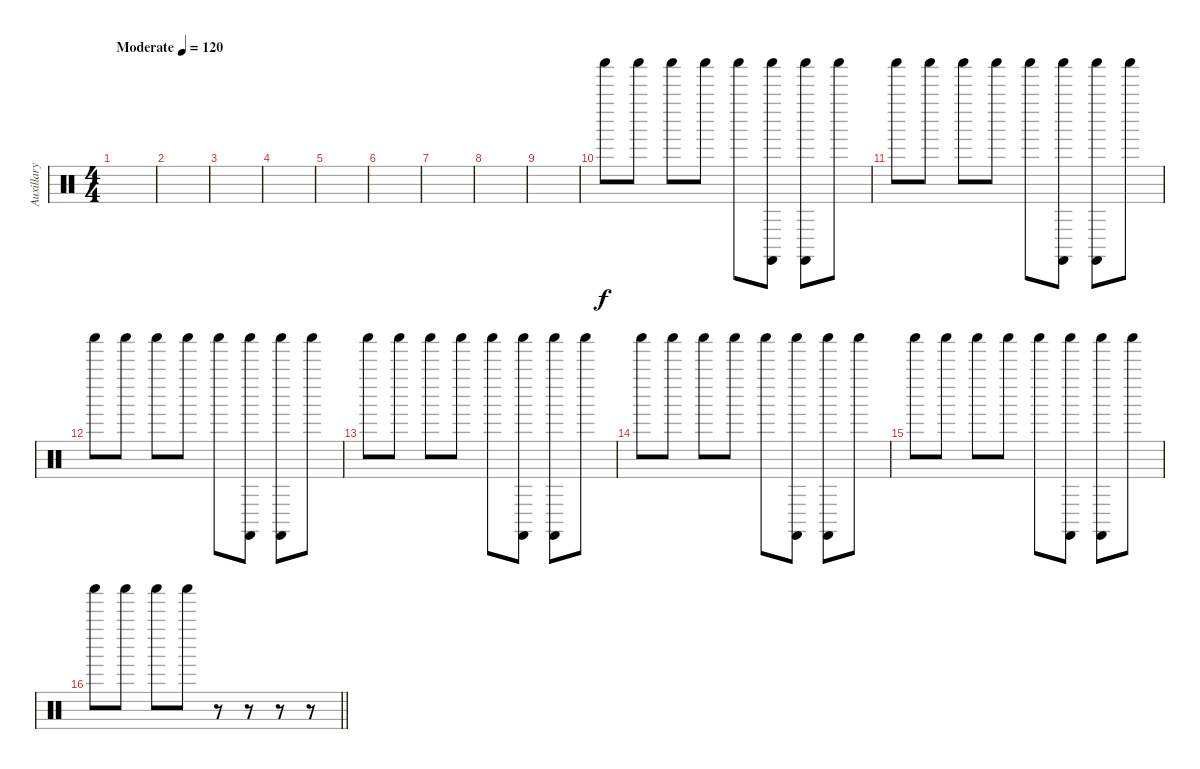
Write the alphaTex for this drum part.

\track ("Auxillary" "Auxillary") {instrument percussion}
\staff {score}
\articulation defaults
\ts (4 4)
\tempo (120 "Moderate")
\clef neutral
\ks c
|
|
|
|
|
|
|
|
|
"Shaker (hit)".8 "Shaker (hit)".8 "Shaker (hit)".8 "Shaker (hit)".8 "Shaker (hit)".8 ("Shaker (hit)" "Castanets (hit)").8 ("Shaker (hit)" "Castanets (hit)").8 "Shaker (hit)".8 |
"Shaker (hit)".8 "Shaker (hit)".8 "Shaker (hit)".8 "Shaker (hit)".8 "Shaker (hit)".8 ("Shaker (hit)" "Castanets (hit)").8 ("Shaker (hit)" "Castanets (hit)").8 "Shaker (hit)".8 |
"Shaker (hit)".8 "Shaker (hit)".8 "Shaker (hit)".8 "Shaker (hit)".8 "Shaker (hit)".8 ("Shaker (hit)" "Castanets (hit)").8 ("Shaker (hit)" "Castanets (hit)").8 "Shaker (hit)".8 |
"Shaker (hit)".8 "Shaker (hit)".8 "Shaker (hit)".8 "Shaker (hit)".8 "Shaker (hit)".8 ("Shaker (hit)" "Castanets (hit)").8 ("Shaker (hit)" "Castanets (hit)").8 "Shaker (hit)".8 |
"Shaker (hit)".8 "Shaker (hit)".8 "Shaker (hit)".8 "Shaker (hit)".8 "Shaker (hit)".8 ("Shaker (hit)" "Castanets (hit)").8 ("Shaker (hit)" "Castanets (hit)").8 "Shaker (hit)".8 |
"Shaker (hit)".8 "Shaker (hit)".8 "Shaker (hit)".8 "Shaker (hit)".8 "Shaker (hit)".8 ("Shaker (hit)" "Castanets (hit)").8 ("Shaker (hit)" "Castanets (hit)").8 "Shaker (hit)".8 |
\barLineRight lightlight "Shaker (hit)".8 "Shaker (hit)".8 "Shaker (hit)".8 "Shaker (hit)".8
r.8 r.8 r.8 r.8
